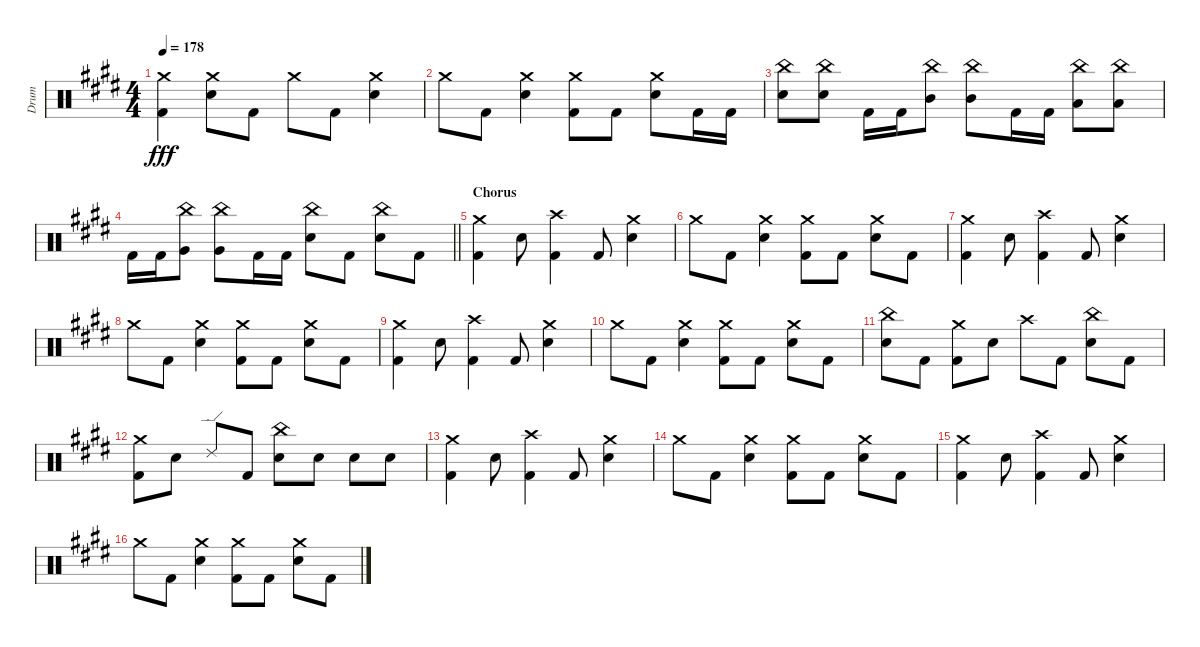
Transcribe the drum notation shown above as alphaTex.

\track ("Drum" "Drum") {instrument percussion}
\staff {score}
\articulation defaults
\ts (4 4)
\tempo 178
\clef neutral
\ks e
("Crash medium (hit)" "Kick (hit) 2").4{dy fff} ("Crash medium (hit)" "Electric Snare (hit)").8 "Kick (hit) 2".8 "Crash medium (hit)".8 "Kick (hit) 2".8 ("Crash medium (hit)" "Electric Snare (hit)").4 |
"Crash medium (hit)".8 "Kick (hit) 2".8 ("Crash medium (hit)" "Electric Snare (hit)").4 ("Crash medium (hit)" "Kick (hit) 2").8 "Kick (hit) 2".8 ("Crash medium (hit)" "Electric Snare (hit)").8 "Kick (hit) 2".16 "Kick (hit) 2".16 |
("China (hit)" "Electric Snare (hit)").8 ("China (hit)" "Electric Snare (hit)").8 "Kick (hit) 2".16 "Kick (hit) 2".16 ("China (hit)" "Mid Tom (hit)").8 ("China (hit)" "Mid Tom (hit)").8 "Kick (hit) 2".16 "Kick (hit) 2".16 ("China (hit)" "Low Tom (hit)").8 ("China (hit)" "Low Tom (hit)").8 |
\barLineRight lightlight "Kick (hit) 2".16 "Kick (hit) 2".16
("China (hit)" "Very Low Tom (hit)").8 ("China (hit)" "Very Low Tom (hit)").8 "Kick (hit) 2".16 "Kick (hit) 2".16 ("China (hit)" "Electric Snare (hit)").8 "Kick (hit) 2".8 ("China (hit)" "Electric Snare (hit)").8 "Kick (hit) 2".8 |
\section ("" "Chorus")
("Crash medium (hit)" "Kick (hit) 2").4 "Electric Snare (hit)".8 ("Crash high (hit)" "Kick (hit) 2").4 "Kick (hit) 2".8 ("Crash medium (hit)" "Electric Snare (hit)").4 |
"Crash medium (hit)".8 "Kick (hit) 2".8 ("Crash medium (hit)" "Electric Snare (hit)").4 ("Crash medium (hit)" "Kick (hit) 2").8 "Kick (hit) 2".8 ("Crash medium (hit)" "Electric Snare (hit)").8 "Kick (hit) 2".8 |
("Crash medium (hit)" "Kick (hit) 2").4 "Electric Snare (hit)".8 ("Crash high (hit)" "Kick (hit) 2").4 "Kick (hit) 2".8 ("Crash medium (hit)" "Electric Snare (hit)").4 |
"Crash medium (hit)".8 "Kick (hit) 2".8 ("Crash medium (hit)" "Electric Snare (hit)").4 ("Crash medium (hit)" "Kick (hit) 2").8 "Kick (hit) 2".8 ("Crash medium (hit)" "Electric Snare (hit)").8 "Kick (hit) 2".8 |
("Crash medium (hit)" "Kick (hit) 2").4 "Electric Snare (hit)".8 ("Crash high (hit)" "Kick (hit) 2").4 "Kick (hit) 2".8 ("Crash medium (hit)" "Electric Snare (hit)").4 |
"Crash medium (hit)".8 "Kick (hit) 2".8 ("Crash medium (hit)" "Electric Snare (hit)").4 ("Crash medium (hit)" "Kick (hit) 2").8 "Kick (hit) 2".8 ("Crash medium (hit)" "Electric Snare (hit)").8 "Kick (hit) 2".8 |
("China (hit)" "Electric Snare (hit)").8 "Kick (hit) 2".8 ("Crash medium (hit)" "Kick (hit) 2").8 "Electric Snare (hit)".8 "Crash high (hit)".8 "Kick (hit) 2".8 ("China (hit)" "Electric Snare (hit)").8 "Kick (hit) 2".8 |
("Crash medium (hit)" "Kick (hit) 2").8 "Electric Snare (hit)".8 "Ride (edge) 2".8 "Kick (hit) 2".8 ("China (hit)" "Electric Snare (hit)").8 "Electric Snare (hit)".8 "Electric Snare (hit)".8 "Electric Snare (hit)".8 |
("Crash medium (hit)" "Kick (hit) 2").4 "Electric Snare (hit)".8 ("Crash high (hit)" "Kick (hit) 2").4 "Kick (hit) 2".8 ("Crash medium (hit)" "Electric Snare (hit)").4 |
"Crash medium (hit)".8 "Kick (hit) 2".8 ("Crash medium (hit)" "Electric Snare (hit)").4 ("Crash medium (hit)" "Kick (hit) 2").8 "Kick (hit) 2".8 ("Crash medium (hit)" "Electric Snare (hit)").8 "Kick (hit) 2".8 |
("Crash medium (hit)" "Kick (hit) 2").4 "Electric Snare (hit)".8 ("Crash high (hit)" "Kick (hit) 2").4 "Kick (hit) 2".8 ("Crash medium (hit)" "Electric Snare (hit)").4 |
"Crash medium (hit)".8 "Kick (hit) 2".8 ("Crash medium (hit)" "Electric Snare (hit)").4 ("Crash medium (hit)" "Kick (hit) 2").8 "Kick (hit) 2".8 ("Crash medium (hit)" "Electric Snare (hit)").8 "Kick (hit) 2".8
